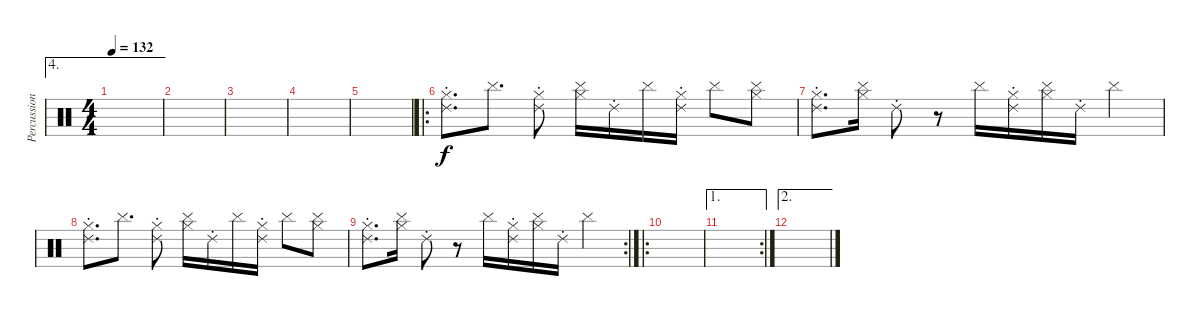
\track ("Percussion" "Percussion") {instrument percussion}
\staff {score}
\articulation defaults
\ae 4
\ts (4 4)
\tempo 132
\clef neutral
\ks c
|
|
|
|
|
\ro
("Ride (choke) 2" "Hi-Hat (closed)").8{d} "Cymbal (hit)".8{d} ("Ride (choke) 2" "Hi-Hat (closed)").8 ("Cymbal (hit)" "Hi-Hat (closed)").16 "Ride (choke) 2".16 "Cymbal (hit)".16 ("Ride (choke) 2" "Hi-Hat (closed)").16 "Cymbal (hit)".8 ("Cymbal (hit)" "Hi-Hat (closed)").8 |
("Ride (choke) 2" "Hi-Hat (closed)").8{d} ("Cymbal (hit)" "Hi-Hat (closed)").16 "Ride (choke) 2".8 r.8 "Cymbal (hit)".16 ("Ride (choke) 2" "Hi-Hat (closed)").16 ("Cymbal (hit)" "Hi-Hat (closed)").16 "Ride (choke) 2".16 "Cymbal (hit)".4 |
("Ride (choke) 2" "Hi-Hat (closed)").8{d} "Cymbal (hit)".8{d} ("Ride (choke) 2" "Hi-Hat (closed)").8 ("Cymbal (hit)" "Hi-Hat (closed)").16 "Ride (choke) 2".16 "Cymbal (hit)".16 ("Ride (choke) 2" "Hi-Hat (closed)").16 "Cymbal (hit)".8 ("Cymbal (hit)" "Hi-Hat (closed)").8 |
\rc 2
("Ride (choke) 2" "Hi-Hat (closed)").8{d} ("Cymbal (hit)" "Hi-Hat (closed)").16 "Ride (choke) 2".8 r.8 "Cymbal (hit)".16 ("Ride (choke) 2" "Hi-Hat (closed)").16 ("Cymbal (hit)" "Hi-Hat (closed)").16 "Ride (choke) 2".16 "Cymbal (hit)".4 |
\ro
|
\ae 1
\rc 2
|
\ae 2
